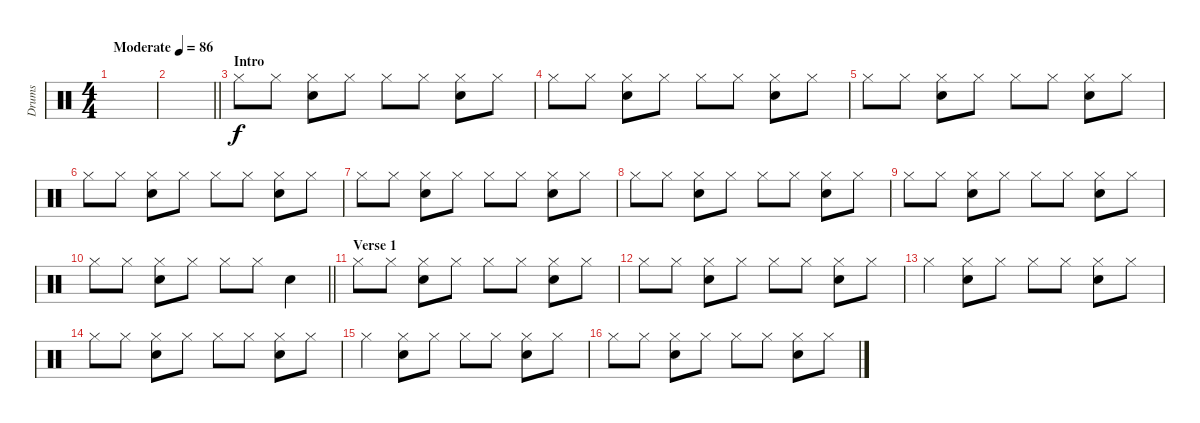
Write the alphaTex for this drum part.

\track ("Drums" "Drums") {instrument percussion}
\staff {score}
\articulation defaults
\ts (4 4)
\tempo (86 "Moderate")
\clef neutral
\ks c
|
\barLineRight lightlight
|
\section ("" "Intro")
"Hi-Hat (closed)".8 "Hi-Hat (closed)".8 ("Hi-Hat (closed)" "Snare (hit) 2").8 "Hi-Hat (closed)".8 "Hi-Hat (closed)".8 "Hi-Hat (closed)".8 ("Hi-Hat (closed)" "Snare (hit) 2").8 "Hi-Hat (closed)".8 |
"Hi-Hat (closed)".8 "Hi-Hat (closed)".8 ("Hi-Hat (closed)" "Snare (hit) 2").8 "Hi-Hat (closed)".8 "Hi-Hat (closed)".8 "Hi-Hat (closed)".8 ("Hi-Hat (closed)" "Snare (hit) 2").8 "Hi-Hat (closed)".8 |
"Hi-Hat (closed)".8 "Hi-Hat (closed)".8 ("Hi-Hat (closed)" "Snare (hit) 2").8 "Hi-Hat (closed)".8 "Hi-Hat (closed)".8 "Hi-Hat (closed)".8 ("Hi-Hat (closed)" "Snare (hit) 2").8 "Hi-Hat (closed)".8 |
"Hi-Hat (closed)".8 "Hi-Hat (closed)".8 ("Hi-Hat (closed)" "Snare (hit) 2").8 "Hi-Hat (closed)".8 "Hi-Hat (closed)".8 "Hi-Hat (closed)".8 ("Hi-Hat (closed)" "Snare (hit) 2").8 "Hi-Hat (closed)".8 |
"Hi-Hat (closed)".8 "Hi-Hat (closed)".8 ("Hi-Hat (closed)" "Snare (hit) 2").8 "Hi-Hat (closed)".8 "Hi-Hat (closed)".8 "Hi-Hat (closed)".8 ("Hi-Hat (closed)" "Snare (hit) 2").8 "Hi-Hat (closed)".8 |
"Hi-Hat (closed)".8 "Hi-Hat (closed)".8 ("Hi-Hat (closed)" "Snare (hit) 2").8 "Hi-Hat (closed)".8 "Hi-Hat (closed)".8 "Hi-Hat (closed)".8 ("Hi-Hat (closed)" "Snare (hit) 2").8 "Hi-Hat (closed)".8 |
"Hi-Hat (closed)".8 "Hi-Hat (closed)".8 ("Hi-Hat (closed)" "Snare (hit) 2").8 "Hi-Hat (closed)".8 "Hi-Hat (closed)".8 "Hi-Hat (closed)".8 ("Hi-Hat (closed)" "Snare (hit) 2").8 "Hi-Hat (closed)".8 |
\barLineRight lightlight "Hi-Hat (closed)".8 "Hi-Hat (closed)".8
("Hi-Hat (closed)" "Snare (hit) 2").8 "Hi-Hat (closed)".8 "Hi-Hat (closed)".8 "Hi-Hat (closed)".8 "Snare (hit) 2".4 |
\section ("" "Verse 1")
"Hi-Hat (closed)".8 "Hi-Hat (closed)".8 ("Hi-Hat (closed)" "Snare (hit) 2").8 "Hi-Hat (closed)".8 "Hi-Hat (closed)".8 "Hi-Hat (closed)".8 ("Hi-Hat (closed)" "Snare (hit) 2").8 "Hi-Hat (closed)".8 |
"Hi-Hat (closed)".8 "Hi-Hat (closed)".8 ("Hi-Hat (closed)" "Snare (hit) 2").8 "Hi-Hat (closed)".8 "Hi-Hat (closed)".8 "Hi-Hat (closed)".8 ("Hi-Hat (closed)" "Snare (hit) 2").8 "Hi-Hat (closed)".8 |
"Hi-Hat (closed)".4 ("Hi-Hat (closed)" "Snare (hit) 2").8 "Hi-Hat (closed)".8 "Hi-Hat (closed)".8 "Hi-Hat (closed)".8 ("Hi-Hat (closed)" "Snare (hit) 2").8 "Hi-Hat (closed)".8 |
"Hi-Hat (closed)".8 "Hi-Hat (closed)".8 ("Hi-Hat (closed)" "Snare (hit) 2").8 "Hi-Hat (closed)".8 "Hi-Hat (closed)".8 "Hi-Hat (closed)".8 ("Hi-Hat (closed)" "Snare (hit) 2").8 "Hi-Hat (closed)".8 |
"Hi-Hat (closed)".4 ("Hi-Hat (closed)" "Snare (hit) 2").8 "Hi-Hat (closed)".8 "Hi-Hat (closed)".8 "Hi-Hat (closed)".8 ("Hi-Hat (closed)" "Snare (hit) 2").8 "Hi-Hat (closed)".8 |
"Hi-Hat (closed)".8 "Hi-Hat (closed)".8 ("Hi-Hat (closed)" "Snare (hit) 2").8 "Hi-Hat (closed)".8 "Hi-Hat (closed)".8 "Hi-Hat (closed)".8 ("Hi-Hat (closed)" "Snare (hit) 2").8 "Hi-Hat (closed)".8
